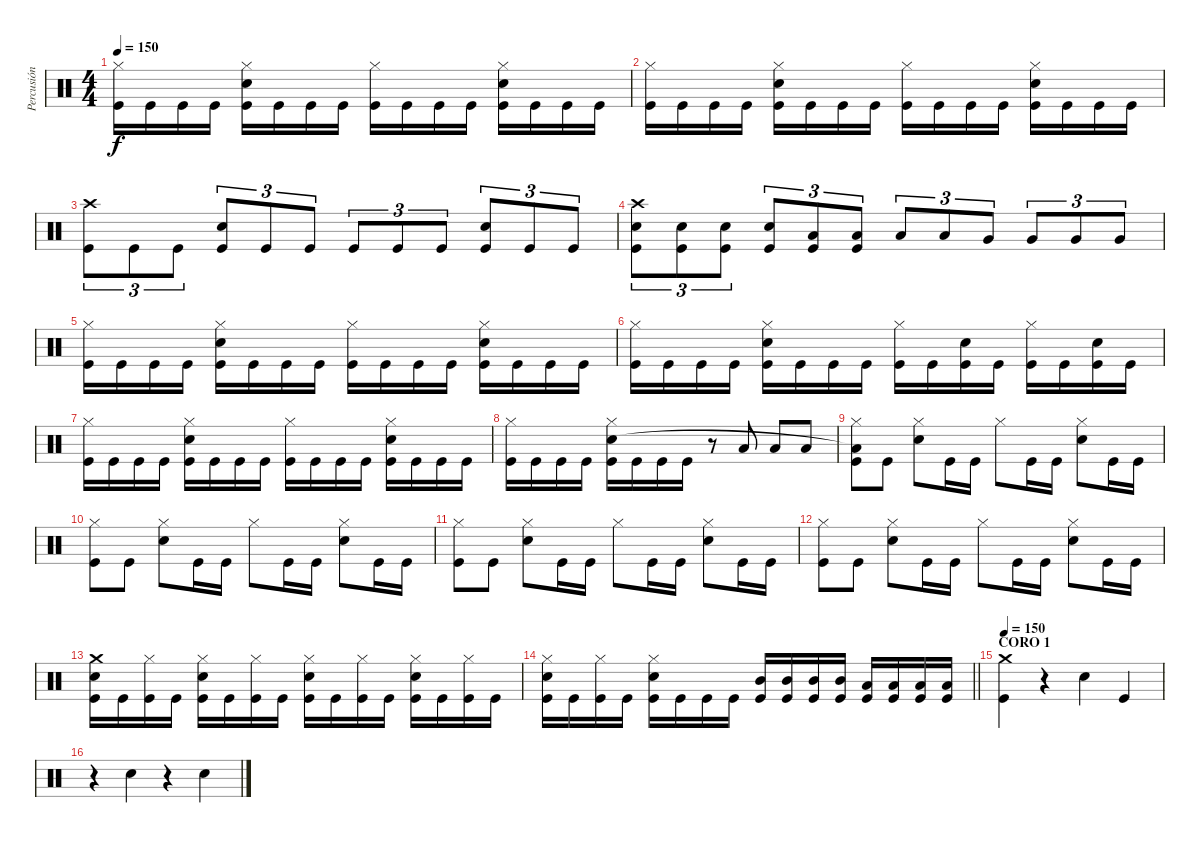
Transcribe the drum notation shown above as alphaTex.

\track ("Percusión" "Percusión") {instrument percussion}
\staff {score}
\articulation defaults
\ts (4 4)
\tempo 150
\clef neutral
\ks c
("Hi-Hat (closed)" "Kick (hit)").16{dy f} "Kick (hit)".16 "Kick (hit)".16 "Kick (hit)".16 ("Hi-Hat (closed)" "Snare (hit) 2" "Kick (hit)").16 "Kick (hit)".16 "Kick (hit)".16 "Kick (hit)".16 ("Hi-Hat (closed)" "Kick (hit)").16 "Kick (hit)".16 "Kick (hit)".16 "Kick (hit)".16 ("Hi-Hat (closed)" "Snare (hit) 2" "Kick (hit)").16 "Kick (hit)".16 "Kick (hit)".16 "Kick (hit)".16 |
("Hi-Hat (closed)" "Kick (hit)").16 "Kick (hit)".16 "Kick (hit)".16 "Kick (hit)".16 ("Hi-Hat (closed)" "Snare (hit) 2" "Kick (hit)").16 "Kick (hit)".16 "Kick (hit)".16 "Kick (hit)".16 ("Hi-Hat (closed)" "Kick (hit)").16 "Kick (hit)".16 "Kick (hit)".16 "Kick (hit)".16 ("Hi-Hat (closed)" "Snare (hit) 2" "Kick (hit)").16 "Kick (hit)".16 "Kick (hit)".16 "Kick (hit)".16 |
("Crash high (hit)" "Kick (hit)").8{tu (3 2)} "Kick (hit)".8{tu (3 2)} "Kick (hit)".8{tu (3 2)} ("Snare (hit) 2" "Kick (hit)").8{tu (3 2)} "Kick (hit)".8{tu (3 2)} "Kick (hit)".8{tu (3 2)} "Kick (hit)".8{tu (3 2)} "Kick (hit)".8{tu (3 2)} "Kick (hit)".8{tu (3 2)} ("Snare (hit) 2" "Kick (hit)").8{tu (3 2)} "Kick (hit)".8{tu (3 2)} "Kick (hit)".8{tu (3 2)} |
("Crash high (hit)" "Snare (hit) 2" "Kick (hit)").8{tu (3 2)} ("Snare (hit) 2" "Kick (hit)").8{tu (3 2)} ("Snare (hit) 2" "Kick (hit)").8{tu (3 2)} ("Snare (hit) 2" "Kick (hit)").8{tu (3 2)} ("Low Tom (hit)" "Kick (hit)").8{tu (3 2)} ("Low Tom (hit)" "Kick (hit)").8{tu (3 2)} "Low Tom (hit)".8{tu (3 2)} "Low Tom (hit)".8{tu (3 2)} "Very Low Tom (hit)".8{tu (3 2)} "Very Low Tom (hit)".8{tu (3 2)} "Very Low Tom (hit)".8{tu (3 2)} "Very Low Tom (hit)".8{tu (3 2)} |
("Hi-Hat (closed)" "Kick (hit)").16 "Kick (hit)".16 "Kick (hit)".16 "Kick (hit)".16 ("Hi-Hat (closed)" "Snare (hit) 2" "Kick (hit)").16 "Kick (hit)".16 "Kick (hit)".16 "Kick (hit)".16 ("Hi-Hat (closed)" "Kick (hit)").16 "Kick (hit)".16 "Kick (hit)".16 "Kick (hit)".16 ("Hi-Hat (closed)" "Snare (hit) 2" "Kick (hit)").16 "Kick (hit)".16 "Kick (hit)".16 "Kick (hit)".16 |
("Hi-Hat (closed)" "Kick (hit)").16 "Kick (hit)".16 "Kick (hit)".16 "Kick (hit)".16 ("Hi-Hat (closed)" "Snare (hit) 2" "Kick (hit)").16 "Kick (hit)".16 "Kick (hit)".16 "Kick (hit)".16 ("Hi-Hat (closed)" "Kick (hit)").16 "Kick (hit)".16 ("Snare (hit) 2" "Kick (hit)").16 "Kick (hit)".16 ("Hi-Hat (closed)" "Kick (hit)").16 "Kick (hit)".16 ("Snare (hit) 2" "Kick (hit)").16 "Kick (hit)".16 |
("Hi-Hat (closed)" "Kick (hit)").16 "Kick (hit)".16 "Kick (hit)".16 "Kick (hit)".16 ("Hi-Hat (closed)" "Snare (hit) 2" "Kick (hit)").16 "Kick (hit)".16 "Kick (hit)".16 "Kick (hit)".16 ("Hi-Hat (closed)" "Kick (hit)").16 "Kick (hit)".16 "Kick (hit)".16 "Kick (hit)".16 ("Hi-Hat (closed)" "Snare (hit) 2" "Kick (hit)").16 "Kick (hit)".16 "Kick (hit)".16 "Kick (hit)".16 |
("Hi-Hat (closed)" "Kick (hit)").16 "Kick (hit)".16 "Kick (hit)".16 "Kick (hit)".16 ("Hi-Hat (closed)" "Snare (hit) 2" "Kick (hit)").16 "Kick (hit)".16 "Kick (hit)".16 "Kick (hit)".16 r.8 "Low Tom (hit)".8 "Low Tom (hit)".8 "Low Tom (hit)".8 |
("Hi-Hat (closed)" "Low Tom (hit)"{t} "Kick (hit)").8 "Kick (hit)".8 ("Hi-Hat (closed)" "Snare (hit) 2").8 "Kick (hit)".16 "Kick (hit)".16 "Hi-Hat (closed)".8 "Kick (hit)".16 "Kick (hit)".16 ("Hi-Hat (closed)" "Snare (hit) 2").8 "Kick (hit)".16 "Kick (hit)".16 |
("Hi-Hat (closed)" "Kick (hit)").8 "Kick (hit)".8 ("Hi-Hat (closed)" "Snare (hit) 2").8 "Kick (hit)".16 "Kick (hit)".16 "Hi-Hat (closed)".8 "Kick (hit)".16 "Kick (hit)".16 ("Hi-Hat (closed)" "Snare (hit) 2").8 "Kick (hit)".16 "Kick (hit)".16 |
("Hi-Hat (closed)" "Kick (hit)").8 "Kick (hit)".8 ("Hi-Hat (closed)" "Snare (hit) 2").8 "Kick (hit)".16 "Kick (hit)".16 "Hi-Hat (closed)".8 "Kick (hit)".16 "Kick (hit)".16 ("Hi-Hat (closed)" "Snare (hit) 2").8 "Kick (hit)".16 "Kick (hit)".16 |
("Hi-Hat (closed)" "Kick (hit)").8 "Kick (hit)".8 ("Hi-Hat (closed)" "Snare (hit) 2").8 "Kick (hit)".16 "Kick (hit)".16 "Hi-Hat (closed)".8 "Kick (hit)".16 "Kick (hit)".16 ("Hi-Hat (closed)" "Snare (hit) 2").8 "Kick (hit)".16 "Kick (hit)".16 |
("Crash medium (hit)" "Snare (hit) 2" "Kick (hit)").16 "Kick (hit)".16 ("Hi-Hat (closed)" "Kick (hit)").16 "Kick (hit)".16 ("Hi-Hat (closed)" "Snare (hit) 2" "Kick (hit)").16 "Kick (hit)".16 ("Hi-Hat (closed)" "Kick (hit)").16 "Kick (hit)".16 ("Hi-Hat (closed)" "Snare (hit) 2" "Kick (hit)").16 "Kick (hit)".16 ("Hi-Hat (closed)" "Kick (hit)").16 "Kick (hit)".16 ("Hi-Hat (closed)" "Snare (hit) 2" "Kick (hit)").16 "Kick (hit)".16 ("Hi-Hat (closed)" "Kick (hit)").16 "Kick (hit)".16 |
\barLineRight lightlight
("Hi-Hat (closed)" "Snare (hit) 2" "Kick (hit)").16 "Kick (hit)".16 ("Hi-Hat (closed)" "Kick (hit)").16 "Kick (hit)".16 ("Hi-Hat (closed)" "Snare (hit) 2" "Kick (hit)").16 "Kick (hit)".16 "Kick (hit)".16 "Kick (hit)".16 ("Mid Tom (hit)" "Kick (hit)").16 ("Mid Tom (hit)" "Kick (hit)").16 ("Mid Tom (hit)" "Kick (hit)").16 ("Mid Tom (hit)" "Kick (hit)").16 ("Low Tom (hit)" "Kick (hit)").16 ("Low Tom (hit)" "Kick (hit)").16 ("Low Tom (hit)" "Kick (hit)").16 ("Low Tom (hit)" "Kick (hit)").16 |
\section ("" "CORO 1")
\tempo 150
("Crash medium (hit)" "Kick (hit)").4 r.4 "Snare (hit) 2".4 "Kick (hit)".4 |
r.4 "Snare (hit) 2".4 r.4 "Snare (hit) 2".4
